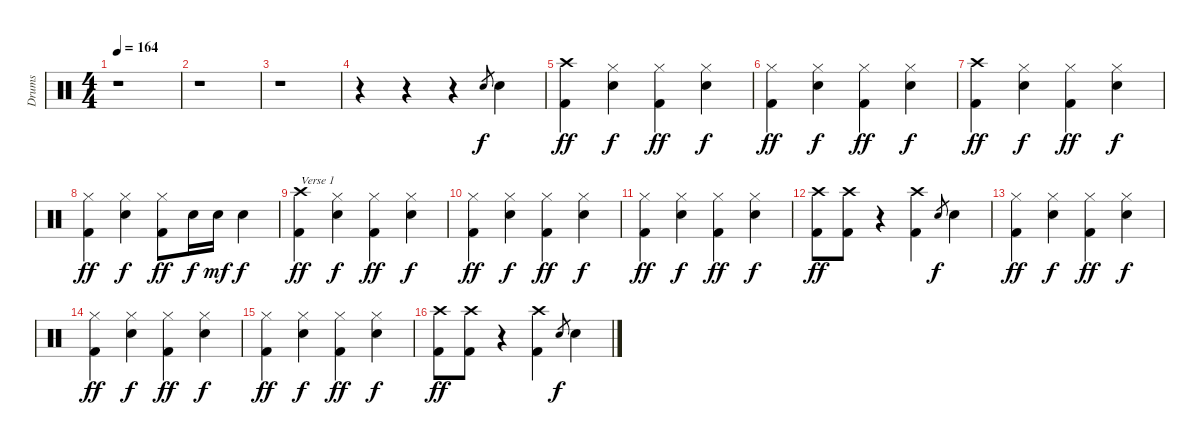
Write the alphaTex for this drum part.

\track ("Drums" "Drums") {instrument percussion}
\staff {score}
\articulation defaults
\ts (4 4)
\tempo 164
\clef neutral
\ks c
r.1{dy f} |
r.1 |
r.1 |
r.4 r.4 r.4 "Snare (hit) 2".8{gr} "Snare (hit) 2".4 |
("Crash high (hit)" "Kick (hit) 2").4{dy ff} ("Hi-Hat (closed)" "Snare (hit) 2").4{dy f} ("Hi-Hat (closed)" "Kick (hit) 2").4{dy ff} ("Hi-Hat (closed)" "Snare (hit) 2").4{dy f} |
("Hi-Hat (closed)" "Kick (hit) 2").4{dy ff} ("Hi-Hat (closed)" "Snare (hit) 2").4{dy f} ("Hi-Hat (closed)" "Kick (hit) 2").4{dy ff} ("Hi-Hat (closed)" "Snare (hit) 2").4{dy f} |
("Crash high (hit)" "Kick (hit) 2").4{dy ff} ("Hi-Hat (closed)" "Snare (hit) 2").4{dy f} ("Hi-Hat (closed)" "Kick (hit) 2").4{dy ff} ("Hi-Hat (closed)" "Snare (hit) 2").4{dy f} |
("Hi-Hat (closed)" "Kick (hit) 2").4{dy ff} ("Hi-Hat (closed)" "Snare (hit) 2").4{dy f} ("Hi-Hat (closed)" "Kick (hit) 2").8{dy ff} "Snare (hit) 2".16{dy f} "Snare (hit) 2".16{dy mf} "Snare (hit) 2".4{dy f} |
("Crash high (hit)" "Kick (hit) 2").4{txt "Verse 1" dy ff} ("Hi-Hat (closed)" "Snare (hit) 2").4{dy f} ("Hi-Hat (closed)" "Kick (hit) 2").4{dy ff} ("Hi-Hat (closed)" "Snare (hit) 2").4{dy f} |
("Hi-Hat (closed)" "Kick (hit) 2").4{dy ff} ("Hi-Hat (closed)" "Snare (hit) 2").4{dy f} ("Hi-Hat (closed)" "Kick (hit) 2").4{dy ff} ("Hi-Hat (closed)" "Snare (hit) 2").4{dy f} |
("Hi-Hat (closed)" "Kick (hit) 2").4{dy ff} ("Hi-Hat (closed)" "Snare (hit) 2").4{dy f} ("Hi-Hat (closed)" "Kick (hit) 2").4{dy ff} ("Hi-Hat (closed)" "Snare (hit) 2").4{dy f} |
("Crash high (hit)" "Kick (hit) 2").8{dy ff} ("Crash high (hit)" "Kick (hit) 2").8 r.4 ("Crash high (hit)" "Kick (hit) 2").4 "Snare (hit) 2".8{gr dy f} "Snare (hit) 2".4 |
("Hi-Hat (closed)" "Kick (hit) 2").4{dy ff} ("Hi-Hat (closed)" "Snare (hit) 2").4{dy f} ("Hi-Hat (closed)" "Kick (hit) 2").4{dy ff} ("Hi-Hat (closed)" "Snare (hit) 2").4{dy f} |
("Hi-Hat (closed)" "Kick (hit) 2").4{dy ff} ("Hi-Hat (closed)" "Snare (hit) 2").4{dy f} ("Hi-Hat (closed)" "Kick (hit) 2").4{dy ff} ("Hi-Hat (closed)" "Snare (hit) 2").4{dy f} |
("Hi-Hat (closed)" "Kick (hit) 2").4{dy ff} ("Hi-Hat (closed)" "Snare (hit) 2").4{dy f} ("Hi-Hat (closed)" "Kick (hit) 2").4{dy ff} ("Hi-Hat (closed)" "Snare (hit) 2").4{dy f} |
("Crash high (hit)" "Kick (hit) 2").8{dy ff} ("Crash high (hit)" "Kick (hit) 2").8 r.4 ("Crash high (hit)" "Kick (hit) 2").4 "Snare (hit) 2".8{gr dy f} "Snare (hit) 2".4
